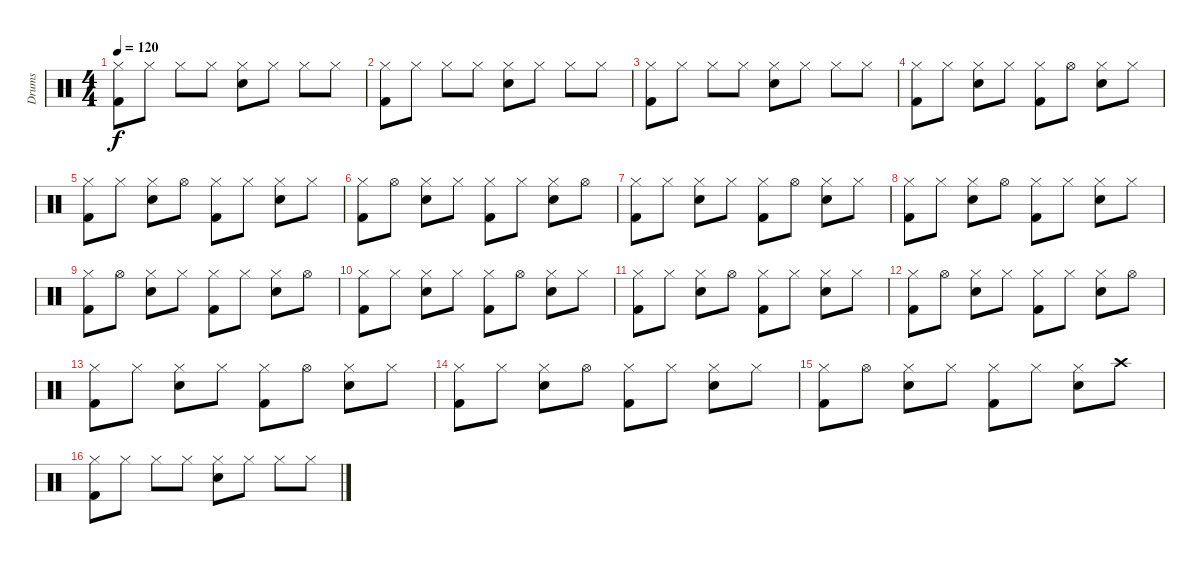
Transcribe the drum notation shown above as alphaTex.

\track ("Drums" "Drums") {instrument percussion}
\staff {score}
\articulation defaults
\ts (4 4)
\tempo 120
\clef neutral
\ks c
("Kick (hit) 2" "Hi-Hat (closed)").8{dy f} "Hi-Hat (closed)".8 "Hi-Hat (closed)".8 "Hi-Hat (closed)".8 ("Electric Snare (hit)" "Hi-Hat (closed)").8 "Hi-Hat (closed)".8 "Hi-Hat (closed)".8 "Hi-Hat (closed)".8 |
("Hi-Hat (closed)" "Kick (hit) 2").8 "Hi-Hat (closed)".8 "Hi-Hat (closed)".8 "Hi-Hat (closed)".8 ("Hi-Hat (closed)" "Electric Snare (hit)").8 "Hi-Hat (closed)".8 "Hi-Hat (closed)".8 "Hi-Hat (closed)".8 |
("Kick (hit) 2" "Hi-Hat (closed)").8 "Hi-Hat (closed)".8 "Hi-Hat (closed)".8 "Hi-Hat (closed)".8 ("Electric Snare (hit)" "Hi-Hat (closed)").8 "Hi-Hat (closed)".8 "Hi-Hat (closed)".8 "Hi-Hat (closed)".8 |
("Hi-Hat (closed)" "Kick (hit) 2").8 "Hi-Hat (closed)".8 ("Hi-Hat (closed)" "Snare (hit) 2").8 "Hi-Hat (closed)".8 ("Kick (hit) 2" "Hi-Hat (closed)").8 "Hi-Hat (open)".8 ("Hi-Hat (closed)" "Snare (hit) 2").8 "Hi-Hat (closed)".8 |
("Kick (hit) 2" "Hi-Hat (closed)").8 "Hi-Hat (closed)".8 ("Electric Snare (hit)" "Hi-Hat (closed)").8 "Hi-Hat (open)".8 ("Hi-Hat (closed)" "Kick (hit) 2").8 "Hi-Hat (closed)".8 ("Electric Snare (hit)" "Hi-Hat (closed)").8 "Hi-Hat (closed)".8 |
("Kick (hit) 2" "Hi-Hat (closed)").8 "Hi-Hat (open)".8 ("Hi-Hat (closed)" "Electric Snare (hit)").8 "Hi-Hat (closed)".8 ("Kick (hit) 2" "Hi-Hat (closed)").8 "Hi-Hat (closed)".8 ("Snare (hit) 2" "Hi-Hat (closed)").8 "Hi-Hat (open)".8 |
("Kick (hit) 2" "Hi-Hat (closed)").8 "Hi-Hat (closed)".8 ("Snare (hit) 2" "Hi-Hat (closed)").8 "Hi-Hat (closed)".8 ("Kick (hit) 2" "Hi-Hat (closed)").8 "Hi-Hat (open)".8 ("Snare (hit) 2" "Hi-Hat (closed)").8 "Hi-Hat (closed)".8 |
("Kick (hit) 2" "Hi-Hat (closed)").8 "Hi-Hat (closed)".8 ("Electric Snare (hit)" "Hi-Hat (closed)").8 "Hi-Hat (open)".8 ("Kick (hit) 2" "Hi-Hat (closed)").8 "Hi-Hat (closed)".8 ("Snare (hit) 2" "Hi-Hat (closed)").8 "Hi-Hat (closed)".8 |
("Kick (hit) 2" "Hi-Hat (closed)").8 "Hi-Hat (open)".8 ("Snare (hit) 2" "Hi-Hat (closed)").8 "Hi-Hat (closed)".8 ("Kick (hit) 2" "Hi-Hat (closed)").8 "Hi-Hat (closed)".8 ("Electric Snare (hit)" "Hi-Hat (closed)").8 "Hi-Hat (open)".8 |
("Kick (hit) 2" "Hi-Hat (closed)").8 "Hi-Hat (closed)".8 ("Snare (hit) 2" "Hi-Hat (closed)").8 "Hi-Hat (closed)".8 ("Kick (hit) 2" "Hi-Hat (closed)").8 "Hi-Hat (open)".8 ("Snare (hit) 2" "Hi-Hat (closed)").8 "Hi-Hat (closed)".8 |
("Kick (hit) 2" "Hi-Hat (closed)").8 "Hi-Hat (closed)".8 ("Electric Snare (hit)" "Hi-Hat (closed)").8 "Hi-Hat (open)".8 ("Kick (hit) 2" "Hi-Hat (closed)").8 "Hi-Hat (closed)".8 ("Snare (hit) 2" "Hi-Hat (closed)").8 "Hi-Hat (closed)".8 |
("Kick (hit) 2" "Hi-Hat (closed)").8 "Hi-Hat (open)".8 ("Snare (hit) 2" "Hi-Hat (closed)").8 "Hi-Hat (closed)".8 ("Kick (hit) 2" "Hi-Hat (closed)").8 "Hi-Hat (closed)".8 ("Electric Snare (hit)" "Hi-Hat (closed)").8 "Hi-Hat (open)".8 |
("Kick (hit) 2" "Hi-Hat (closed)").8 "Hi-Hat (closed)".8 ("Snare (hit) 2" "Hi-Hat (closed)").8 "Hi-Hat (closed)".8 ("Kick (hit) 2" "Hi-Hat (closed)").8 "Hi-Hat (open)".8 ("Snare (hit) 2" "Hi-Hat (closed)").8 "Hi-Hat (closed)".8 |
("Kick (hit) 2" "Hi-Hat (closed)").8 "Hi-Hat (closed)".8 ("Electric Snare (hit)" "Hi-Hat (closed)").8 "Hi-Hat (open)".8 ("Kick (hit) 2" "Hi-Hat (closed)").8 "Hi-Hat (closed)".8 ("Snare (hit) 2" "Hi-Hat (closed)").8 "Hi-Hat (closed)".8 |
("Kick (hit) 2" "Hi-Hat (closed)").8 "Hi-Hat (open)".8 ("Snare (hit) 2" "Hi-Hat (closed)").8 "Hi-Hat (closed)".8 ("Kick (hit) 2" "Hi-Hat (closed)").8 "Hi-Hat (closed)".8 ("Electric Snare (hit)" "Hi-Hat (closed)").8 "Crash high (hit)".8 |
("Hi-Hat (closed)" "Kick (hit) 2").8 "Hi-Hat (closed)".8 "Hi-Hat (closed)".8 "Hi-Hat (closed)".8 ("Electric Snare (hit)" "Hi-Hat (closed)").8 "Hi-Hat (closed)".8 "Hi-Hat (closed)".8 "Hi-Hat (closed)".8
